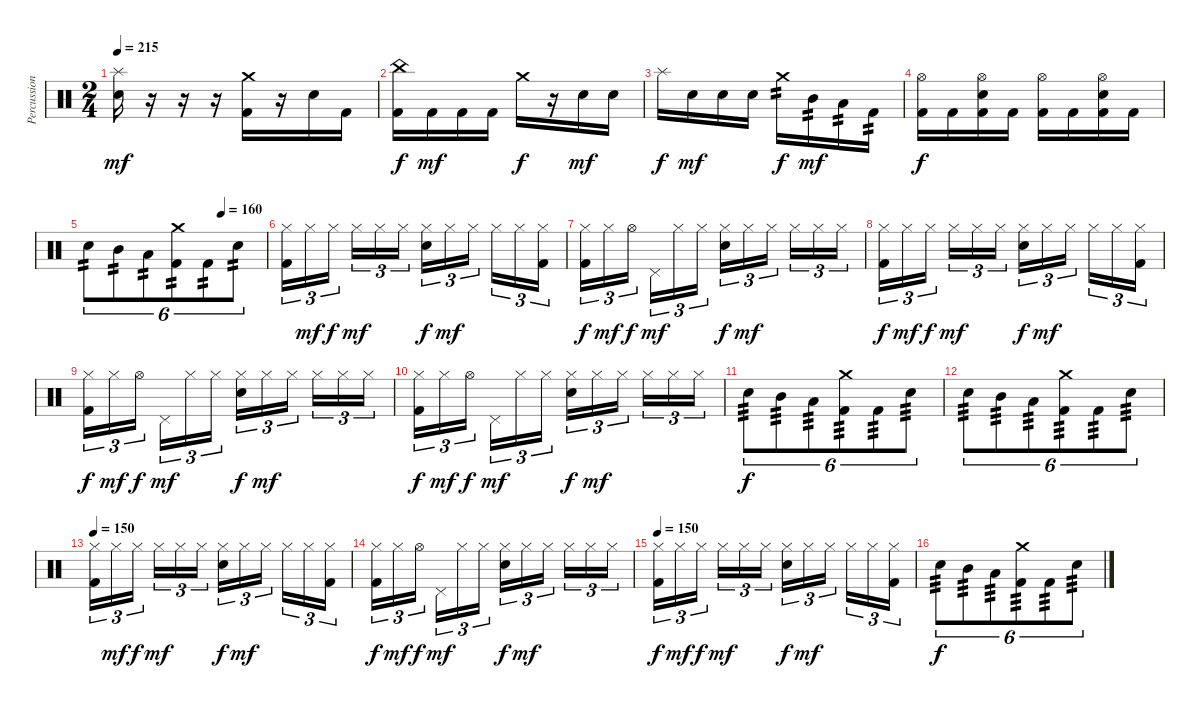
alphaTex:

\track ("Percussion" "Percussion") {instrument percussion}
\staff {score}
\articulation defaults
\ts (2 4)
\tempo 215
\clef neutral
\ks c
("Snare (hit) 2" "Splash (hit)").16{dy mf} r.16 r.16 r.16 ("Kick (hit) 2" "Crash medium (hit)").16 r.16 "Snare (hit) 2".16 "Kick (hit) 2".16 |
("Kick (hit) 2" "China (hit)").16{dy f} "Kick (hit) 2".16{dy mf} "Kick (hit) 2".16 "Kick (hit) 2".16 "Crash medium (hit)".16{dy f} r.16 "Snare (hit) 2".16{dy mf} "Snare (hit) 2".16 |
"Splash (hit)".16{dy f} "Snare (hit) 2".16{dy mf} "Snare (hit) 2".16 "Snare (hit) 2".16 "Crash medium (hit)".16{tp 2 dy f} "Mid Tom (hit)".16{tp 2 dy mf} "Low Tom (hit)".16{tp 2} "Kick (hit) 2".16{tp 2} |
("Kick (hit) 2" "Hi-Hat (open)").16{dy f} "Kick (hit) 2".16 ("Kick (hit) 2" "Snare (hit) 2" "Hi-Hat (open)").16 "Kick (hit) 2".16 ("Kick (hit) 2" "Hi-Hat (open)").16 "Kick (hit) 2".16 ("Kick (hit) 2" "Snare (hit) 2" "Hi-Hat (open)").16 "Kick (hit) 2".16 |
\tempo (160 0.75)
"Snare (hit) 2".8{tu (6 4) tp 2} "Mid Tom (hit)".8{tu (6 4) tp 2} "Low Tom (hit)".8{tu (6 4) tp 2} ("Crash medium (hit)" "Kick (hit) 2").8{tu (6 4) tp 2} "Kick (hit) 2".8{tu (6 4) tp 2} "Snare (hit) 2".8{tu (6 4) tp 2} |
("Kick (hit) 2" "Hi-Hat (closed)").16{tu (3 2)} "Hi-Hat (closed)".16{tu (3 2) dy mf} "Hi-Hat (closed)".16{tu (3 2) dy f beam splitsecondary} "Hi-Hat (closed)".16{tu (3 2) dy mf} "Hi-Hat (closed)".16{tu (3 2)} "Hi-Hat (closed)".16{tu (3 2)} ("Snare (hit) 2" "Hi-Hat (closed)").16{tu (3 2) dy f} "Hi-Hat (closed)".16{tu (3 2) dy mf} "Hi-Hat (closed)".16{tu (3 2) beam splitsecondary} "Hi-Hat (closed)".16{tu (3 2)} "Hi-Hat (closed)".16{tu (3 2)} ("Kick (hit) 2" "Hi-Hat (closed)").16{tu (3 2)} |
("Kick (hit) 2" "Hi-Hat (closed)").16{tu (3 2) dy f} "Hi-Hat (closed)".16{tu (3 2) dy mf} "Hi-Hat (open)".16{tu (3 2) dy f beam splitsecondary} "Pedal Hi-Hat (hit)".16{tu (3 2) dy mf} "Hi-Hat (closed)".16{tu (3 2)} "Hi-Hat (closed)".16{tu (3 2)} ("Snare (hit) 2" "Hi-Hat (closed)").16{tu (3 2) dy f} "Hi-Hat (closed)".16{tu (3 2) dy mf} "Hi-Hat (closed)".16{tu (3 2) beam splitsecondary} "Hi-Hat (closed)".16{tu (3 2)} "Hi-Hat (closed)".16{tu (3 2)} "Hi-Hat (closed)".16{tu (3 2)} |
("Kick (hit) 2" "Hi-Hat (closed)").16{tu (3 2) dy f} "Hi-Hat (closed)".16{tu (3 2) dy mf} "Hi-Hat (closed)".16{tu (3 2) dy f beam splitsecondary} "Hi-Hat (closed)".16{tu (3 2) dy mf} "Hi-Hat (closed)".16{tu (3 2)} "Hi-Hat (closed)".16{tu (3 2)} ("Snare (hit) 2" "Hi-Hat (closed)").16{tu (3 2) dy f} "Hi-Hat (closed)".16{tu (3 2) dy mf} "Hi-Hat (closed)".16{tu (3 2) beam splitsecondary} "Hi-Hat (closed)".16{tu (3 2)} "Hi-Hat (closed)".16{tu (3 2)} ("Kick (hit) 2" "Hi-Hat (closed)").16{tu (3 2)} |
("Kick (hit) 2" "Hi-Hat (closed)").16{tu (3 2) dy f} "Hi-Hat (closed)".16{tu (3 2) dy mf} "Hi-Hat (open)".16{tu (3 2) dy f beam splitsecondary} "Pedal Hi-Hat (hit)".16{tu (3 2) dy mf} "Hi-Hat (closed)".16{tu (3 2)} "Hi-Hat (closed)".16{tu (3 2)} ("Snare (hit) 2" "Hi-Hat (closed)").16{tu (3 2) dy f} "Hi-Hat (closed)".16{tu (3 2) dy mf} "Hi-Hat (closed)".16{tu (3 2) beam splitsecondary} "Hi-Hat (closed)".16{tu (3 2)} "Hi-Hat (closed)".16{tu (3 2)} "Hi-Hat (closed)".16{tu (3 2)} |
("Kick (hit) 2" "Hi-Hat (closed)").16{tu (3 2) dy f} "Hi-Hat (closed)".16{tu (3 2) dy mf} "Hi-Hat (open)".16{tu (3 2) dy f beam splitsecondary} "Pedal Hi-Hat (hit)".16{tu (3 2) dy mf} "Hi-Hat (closed)".16{tu (3 2)} "Hi-Hat (closed)".16{tu (3 2)} ("Snare (hit) 2" "Hi-Hat (closed)").16{tu (3 2) dy f} "Hi-Hat (closed)".16{tu (3 2) dy mf} "Hi-Hat (closed)".16{tu (3 2) beam splitsecondary} "Hi-Hat (closed)".16{tu (3 2)} "Hi-Hat (closed)".16{tu (3 2)} "Hi-Hat (closed)".16{tu (3 2)} |
"Snare (hit) 2".8{tu (6 4) tp 3 dy f} "Mid Tom (hit)".8{tu (6 4) tp 3} "Low Tom (hit)".8{tu (6 4) tp 3} ("Crash medium (hit)" "Kick (hit) 2").8{tu (6 4) tp 3} "Kick (hit) 2".8{tu (6 4) tp 3} "Snare (hit) 2".8{tu (6 4) tp 3} |
"Snare (hit) 2".8{tu (6 4) tp 3} "Mid Tom (hit)".8{tu (6 4) tp 3} "Low Tom (hit)".8{tu (6 4) tp 3} ("Crash medium (hit)" "Kick (hit) 2").8{tu (6 4) tp 3} "Kick (hit) 2".8{tu (6 4) tp 3} "Snare (hit) 2".8{tu (6 4) tp 3} |
\tempo 150
("Kick (hit) 2" "Hi-Hat (closed)").16{tu (3 2)} "Hi-Hat (closed)".16{tu (3 2) dy mf} "Hi-Hat (closed)".16{tu (3 2) dy f beam splitsecondary} "Hi-Hat (closed)".16{tu (3 2) dy mf} "Hi-Hat (closed)".16{tu (3 2)} "Hi-Hat (closed)".16{tu (3 2)} ("Snare (hit) 2" "Hi-Hat (closed)").16{tu (3 2) dy f} "Hi-Hat (closed)".16{tu (3 2) dy mf} "Hi-Hat (closed)".16{tu (3 2) beam splitsecondary} "Hi-Hat (closed)".16{tu (3 2)} "Hi-Hat (closed)".16{tu (3 2)} ("Kick (hit) 2" "Hi-Hat (closed)").16{tu (3 2)} |
("Kick (hit) 2" "Hi-Hat (closed)").16{tu (3 2) dy f} "Hi-Hat (closed)".16{tu (3 2) dy mf} "Hi-Hat (open)".16{tu (3 2) dy f beam splitsecondary} "Pedal Hi-Hat (hit)".16{tu (3 2) dy mf} "Hi-Hat (closed)".16{tu (3 2)} "Hi-Hat (closed)".16{tu (3 2)} ("Snare (hit) 2" "Hi-Hat (closed)").16{tu (3 2) dy f} "Hi-Hat (closed)".16{tu (3 2) dy mf} "Hi-Hat (closed)".16{tu (3 2) beam splitsecondary} "Hi-Hat (closed)".16{tu (3 2)} "Hi-Hat (closed)".16{tu (3 2)} "Hi-Hat (closed)".16{tu (3 2)} |
\tempo 150
("Kick (hit) 2" "Hi-Hat (closed)").16{tu (3 2) dy f} "Hi-Hat (closed)".16{tu (3 2) dy mf} "Hi-Hat (closed)".16{tu (3 2) dy f beam splitsecondary} "Hi-Hat (closed)".16{tu (3 2) dy mf} "Hi-Hat (closed)".16{tu (3 2)} "Hi-Hat (closed)".16{tu (3 2)} ("Snare (hit) 2" "Hi-Hat (closed)").16{tu (3 2) dy f} "Hi-Hat (closed)".16{tu (3 2) dy mf} "Hi-Hat (closed)".16{tu (3 2) beam splitsecondary} "Hi-Hat (closed)".16{tu (3 2)} "Hi-Hat (closed)".16{tu (3 2)} ("Kick (hit) 2" "Hi-Hat (closed)").16{tu (3 2)} |
"Snare (hit) 2".8{tu (6 4) tp 3 dy f} "Mid Tom (hit)".8{tu (6 4) tp 3} "Low Tom (hit)".8{tu (6 4) tp 3} ("Crash medium (hit)" "Kick (hit) 2").8{tu (6 4) tp 3} "Kick (hit) 2".8{tu (6 4) tp 3} "Snare (hit) 2".8{tu (6 4) tp 3}
